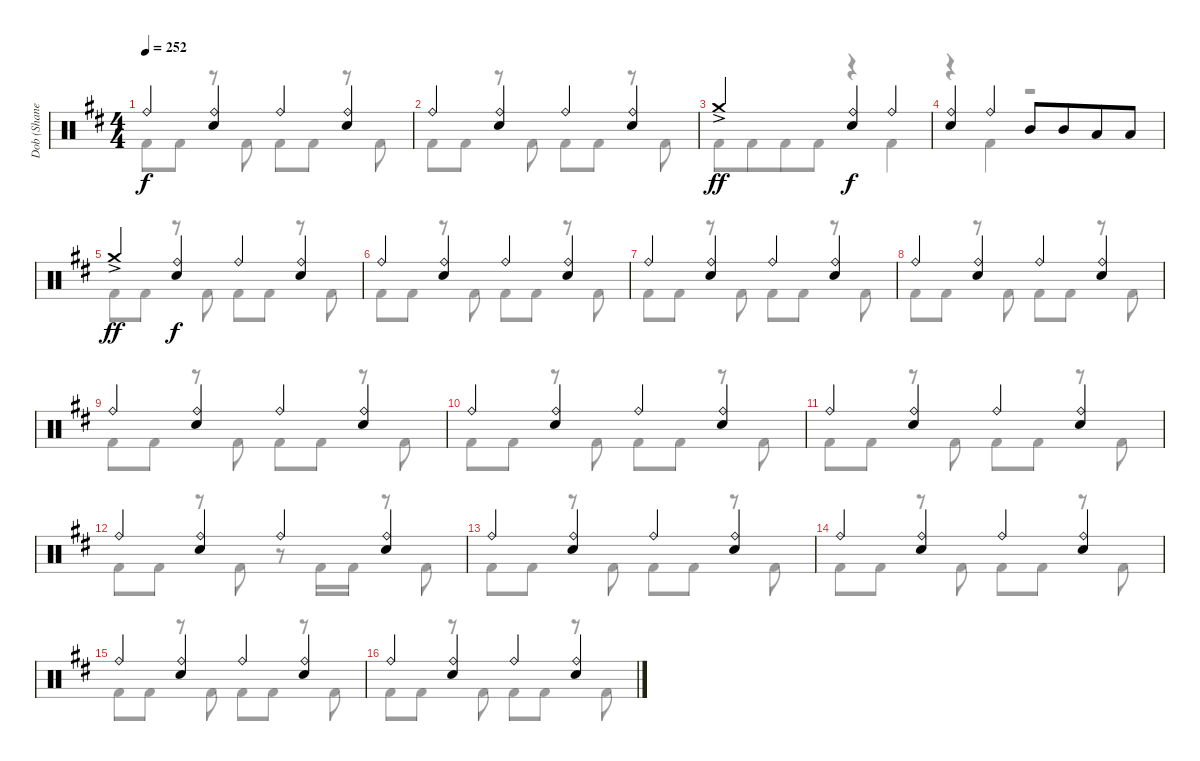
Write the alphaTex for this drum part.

\track ("Dob (Shane Gaalaas)" "Dob (Shane") {instrument percussion}
\staff {score}
\articulation defaults
\voice
\ts (4 4)
\tempo 252
\clef neutral
\ks d "Ride (bell)".4{dy f}
("Ride (bell)" "Electric Snare (hit)").4 "Ride (bell)".4 ("Ride (bell)" "Electric Snare (hit)").4 |
"Ride (bell)".4 ("Ride (bell)" "Electric Snare (hit)").4 "Ride (bell)".4 ("Ride (bell)" "Electric Snare (hit)").4 |
"Crash medium (hit)"{ac}.2{dy ff} ("Ride (bell)" "Electric Snare (hit)").4{dy f} "Ride (bell)".4 |
("Ride (bell)" "Electric Snare (hit)").4 "Ride (bell)".4 "Mid Tom (hit)".8 "Mid Tom (hit)".8{beam merge} "Low Tom (hit)".8 "Low Tom (hit)".8 |
"Crash medium (hit)"{ac}.4{dy ff} ("Ride (bell)" "Electric Snare (hit)").4{dy f} "Ride (bell)".4 ("Ride (bell)" "Electric Snare (hit)").4 |
"Ride (bell)".4 ("Ride (bell)" "Electric Snare (hit)").4 "Ride (bell)".4 ("Ride (bell)" "Electric Snare (hit)").4 |
"Ride (bell)".4 ("Ride (bell)" "Electric Snare (hit)").4 "Ride (bell)".4 ("Ride (bell)" "Electric Snare (hit)").4 |
"Ride (bell)".4 ("Ride (bell)" "Electric Snare (hit)").4 "Ride (bell)".4 ("Ride (bell)" "Electric Snare (hit)").4 |
"Ride (bell)".4 ("Ride (bell)" "Electric Snare (hit)").4 "Ride (bell)".4 ("Ride (bell)" "Electric Snare (hit)").4 |
"Ride (bell)".4 ("Ride (bell)" "Electric Snare (hit)").4 "Ride (bell)".4 ("Ride (bell)" "Electric Snare (hit)").4 |
"Ride (bell)".4 ("Ride (bell)" "Electric Snare (hit)").4 "Ride (bell)".4 ("Ride (bell)" "Electric Snare (hit)").4 |
"Ride (bell)".4 ("Ride (bell)" "Electric Snare (hit)").4 "Ride (bell)".4 ("Ride (bell)" "Electric Snare (hit)").4 |
"Ride (bell)".4 ("Ride (bell)" "Electric Snare (hit)").4 "Ride (bell)".4 ("Ride (bell)" "Electric Snare (hit)").4 |
"Ride (bell)".4 ("Ride (bell)" "Electric Snare (hit)").4 "Ride (bell)".4 ("Ride (bell)" "Electric Snare (hit)").4 |
"Ride (bell)".4 ("Ride (bell)" "Electric Snare (hit)").4 "Ride (bell)".4 ("Ride (bell)" "Electric Snare (hit)").4 |
"Ride (bell)".4 ("Ride (bell)" "Electric Snare (hit)").4 "Ride (bell)".4 ("Ride (bell)" "Electric Snare (hit)").4
\voice
\clef neutral
\ottava regular
\simile none
\ks d "Kick (hit) 2".8{dy f} "Kick (hit) 2".8
r.8 "Kick (hit) 2".8 "Kick (hit) 2".8 "Kick (hit) 2".8 r.8 "Kick (hit) 2".8 |
"Kick (hit) 2".8 "Kick (hit) 2".8 r.8 "Kick (hit) 2".8 "Kick (hit) 2".8 "Kick (hit) 2".8 r.8 "Kick (hit) 2".8 |
"Kick (hit) 2".8 "Kick (hit) 2".8{beam merge} "Kick (hit) 2".8 "Kick (hit) 2".8 r.4 "Kick (hit) 2".4 |
r.4 "Kick (hit) 2".4 r.2 |
"Kick (hit) 2".8 "Kick (hit) 2".8 r.8 "Kick (hit) 2".8 "Kick (hit) 2".8 "Kick (hit) 2".8 r.8 "Kick (hit) 2".8 |
"Kick (hit) 2".8 "Kick (hit) 2".8 r.8 "Kick (hit) 2".8 "Kick (hit) 2".8 "Kick (hit) 2".8 r.8 "Kick (hit) 2".8 |
"Kick (hit) 2".8 "Kick (hit) 2".8 r.8 "Kick (hit) 2".8 "Kick (hit) 2".8 "Kick (hit) 2".8 r.8 "Kick (hit) 2".8 |
"Kick (hit) 2".8 "Kick (hit) 2".8 r.8 "Kick (hit) 2".8 "Kick (hit) 2".8 "Kick (hit) 2".8 r.8 "Kick (hit) 2".8 |
"Kick (hit) 2".8 "Kick (hit) 2".8 r.8 "Kick (hit) 2".8 "Kick (hit) 2".8 "Kick (hit) 2".8 r.8 "Kick (hit) 2".8 |
"Kick (hit) 2".8 "Kick (hit) 2".8 r.8 "Kick (hit) 2".8 "Kick (hit) 2".8 "Kick (hit) 2".8 r.8 "Kick (hit) 2".8 |
"Kick (hit) 2".8 "Kick (hit) 2".8 r.8 "Kick (hit) 2".8 "Kick (hit) 2".8 "Kick (hit) 2".8 r.8 "Kick (hit) 2".8 |
"Kick (hit) 2".8 "Kick (hit) 2".8 r.8 "Kick (hit) 2".8 r.8 "Kick (hit) 2".16 "Kick (hit) 2".16 r.8 "Kick (hit) 2".8 |
"Kick (hit) 2".8 "Kick (hit) 2".8 r.8 "Kick (hit) 2".8 "Kick (hit) 2".8 "Kick (hit) 2".8 r.8 "Kick (hit) 2".8 |
"Kick (hit) 2".8 "Kick (hit) 2".8 r.8 "Kick (hit) 2".8 "Kick (hit) 2".8 "Kick (hit) 2".8 r.8 "Kick (hit) 2".8 |
"Kick (hit) 2".8 "Kick (hit) 2".8 r.8 "Kick (hit) 2".8 "Kick (hit) 2".8 "Kick (hit) 2".8 r.8 "Kick (hit) 2".8 |
"Kick (hit) 2".8 "Kick (hit) 2".8 r.8 "Kick (hit) 2".8 "Kick (hit) 2".8 "Kick (hit) 2".8 r.8 "Kick (hit) 2".8
